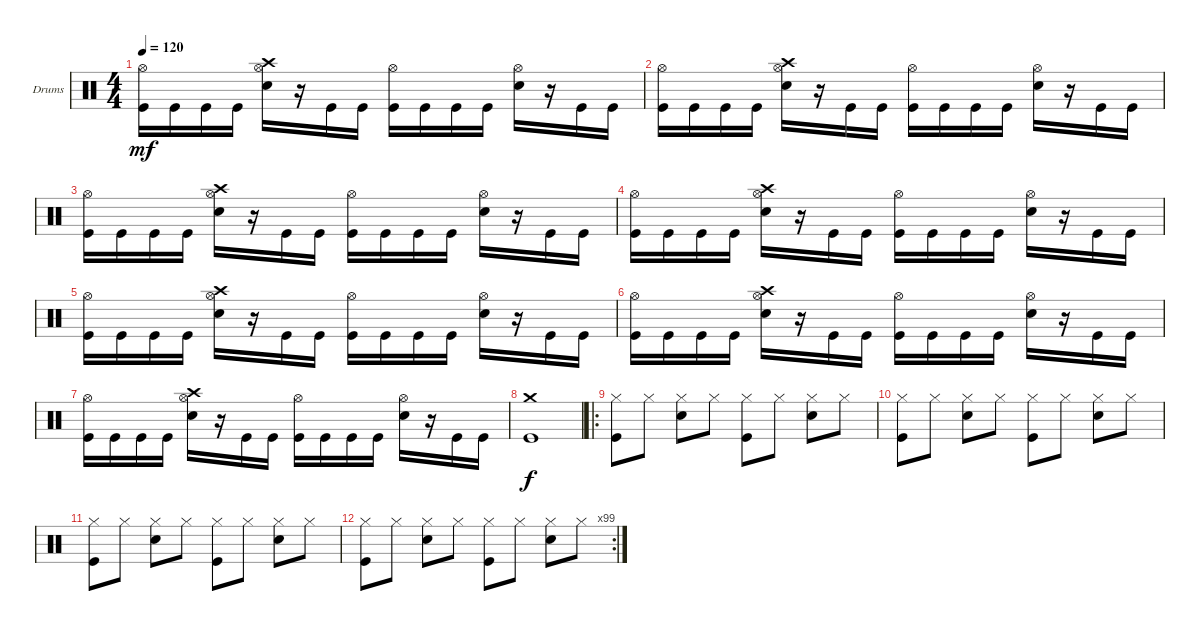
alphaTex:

\bracketExtendMode groupsimilarinstruments
\firstSystemTrackNameOrientation horizontal
\otherSystemsTrackNameOrientation horizontal
\track ("Drumkit" "Drums") {instrument percussion}
\staff {score}
\articulation defaults
\ts (4 4)
\tempo 120
\clef neutral
\scale
0.333333
\ks c
("Hi-Hat (open)" "Kick (hit)").16{dy mf} "Kick (hit)".16 "Kick (hit)".16 "Kick (hit)".16 ("Snare (hit) 2" "Crash high (hit)" "Hi-Hat (open)").16 r.16 "Kick (hit)".16 "Kick (hit)".16 ("Kick (hit)" "Hi-Hat (open)").16 "Kick (hit)".16 "Kick (hit)".16 "Kick (hit)".16 ("Snare (hit) 2" "Hi-Hat (open)").16 r.16 "Kick (hit)".16 "Kick (hit)".16 |
\scale
0.333333 ("Hi-Hat (open)" "Kick (hit)").16 "Kick (hit)".16 "Kick (hit)".16 "Kick (hit)".16 ("Snare (hit) 2" "Crash high (hit)" "Hi-Hat (open)").16 r.16 "Kick (hit)".16 "Kick (hit)".16 ("Kick (hit)" "Hi-Hat (open)").16 "Kick (hit)".16 "Kick (hit)".16 "Kick (hit)".16 ("Snare (hit) 2" "Hi-Hat (open)").16 r.16 "Kick (hit)".16 "Kick (hit)".16 |
\scale
0.333333 ("Hi-Hat (open)" "Kick (hit)").16 "Kick (hit)".16 "Kick (hit)".16 "Kick (hit)".16 ("Snare (hit) 2" "Crash high (hit)" "Hi-Hat (open)").16 r.16 "Kick (hit)".16 "Kick (hit)".16 ("Kick (hit)" "Hi-Hat (open)").16 "Kick (hit)".16 "Kick (hit)".16 "Kick (hit)".16 ("Snare (hit) 2" "Hi-Hat (open)").16 r.16 "Kick (hit)".16 "Kick (hit)".16 |
\scale
0.333333 ("Hi-Hat (open)" "Kick (hit)").16 "Kick (hit)".16 "Kick (hit)".16 "Kick (hit)".16 ("Snare (hit) 2" "Crash high (hit)" "Hi-Hat (open)").16 r.16 "Kick (hit)".16 "Kick (hit)".16 ("Kick (hit)" "Hi-Hat (open)").16 "Kick (hit)".16 "Kick (hit)".16 "Kick (hit)".16 ("Snare (hit) 2" "Hi-Hat (open)").16 r.16 "Kick (hit)".16 "Kick (hit)".16 |
\scale
0.333333 ("Hi-Hat (open)" "Kick (hit)").16 "Kick (hit)".16 "Kick (hit)".16 "Kick (hit)".16 ("Snare (hit) 2" "Crash high (hit)" "Hi-Hat (open)").16 r.16 "Kick (hit)".16 "Kick (hit)".16 ("Kick (hit)" "Hi-Hat (open)").16 "Kick (hit)".16 "Kick (hit)".16 "Kick (hit)".16 ("Snare (hit) 2" "Hi-Hat (open)").16 r.16 "Kick (hit)".16 "Kick (hit)".16 |
\scale
0.333333 ("Hi-Hat (open)" "Kick (hit)").16 "Kick (hit)".16 "Kick (hit)".16 "Kick (hit)".16 ("Snare (hit) 2" "Crash high (hit)" "Hi-Hat (open)").16 r.16 "Kick (hit)".16 "Kick (hit)".16 ("Kick (hit)" "Hi-Hat (open)").16 "Kick (hit)".16 "Kick (hit)".16 "Kick (hit)".16 ("Snare (hit) 2" "Hi-Hat (open)").16 r.16 "Kick (hit)".16 "Kick (hit)".16 |
\scale
0.391473 ("Hi-Hat (open)" "Kick (hit)").16 "Kick (hit)".16 "Kick (hit)".16 "Kick (hit)".16 ("Snare (hit) 2" "Crash high (hit)" "Hi-Hat (open)").16 r.16 "Kick (hit)".16 "Kick (hit)".16 ("Kick (hit)" "Hi-Hat (open)").16 "Kick (hit)".16 "Kick (hit)".16 "Kick (hit)".16 ("Snare (hit) 2" "Hi-Hat (open)").16 r.16 "Kick (hit)".16 "Kick (hit)".16 |
\scale
0.217054 ("Crash medium (hit)" "Kick (hit)").1{dy f} |
\ro
("Hi-Hat (closed)" "Kick (hit)").8 "Hi-Hat (closed)".8 ("Hi-Hat (closed)" "Snare (hit) 2").8 "Hi-Hat (closed)".8 ("Hi-Hat (closed)" "Kick (hit)").8 "Hi-Hat (closed)".8 ("Hi-Hat (closed)" "Snare (hit) 2").8 "Hi-Hat (closed)".8 |
("Hi-Hat (closed)" "Kick (hit)").8 "Hi-Hat (closed)".8 ("Hi-Hat (closed)" "Snare (hit) 2").8 "Hi-Hat (closed)".8 ("Hi-Hat (closed)" "Kick (hit)").8 "Hi-Hat (closed)".8 ("Hi-Hat (closed)" "Snare (hit) 2").8 "Hi-Hat (closed)".8 |
("Hi-Hat (closed)" "Kick (hit)").8 "Hi-Hat (closed)".8 ("Hi-Hat (closed)" "Snare (hit) 2").8 "Hi-Hat (closed)".8 ("Hi-Hat (closed)" "Kick (hit)").8 "Hi-Hat (closed)".8 ("Hi-Hat (closed)" "Snare (hit) 2").8 "Hi-Hat (closed)".8 |
\rc 99
("Hi-Hat (closed)" "Kick (hit)").8 "Hi-Hat (closed)".8 ("Hi-Hat (closed)" "Snare (hit) 2").8 "Hi-Hat (closed)".8 ("Hi-Hat (closed)" "Kick (hit)").8 "Hi-Hat (closed)".8 ("Hi-Hat (closed)" "Snare (hit) 2").8 "Hi-Hat (closed)".8
